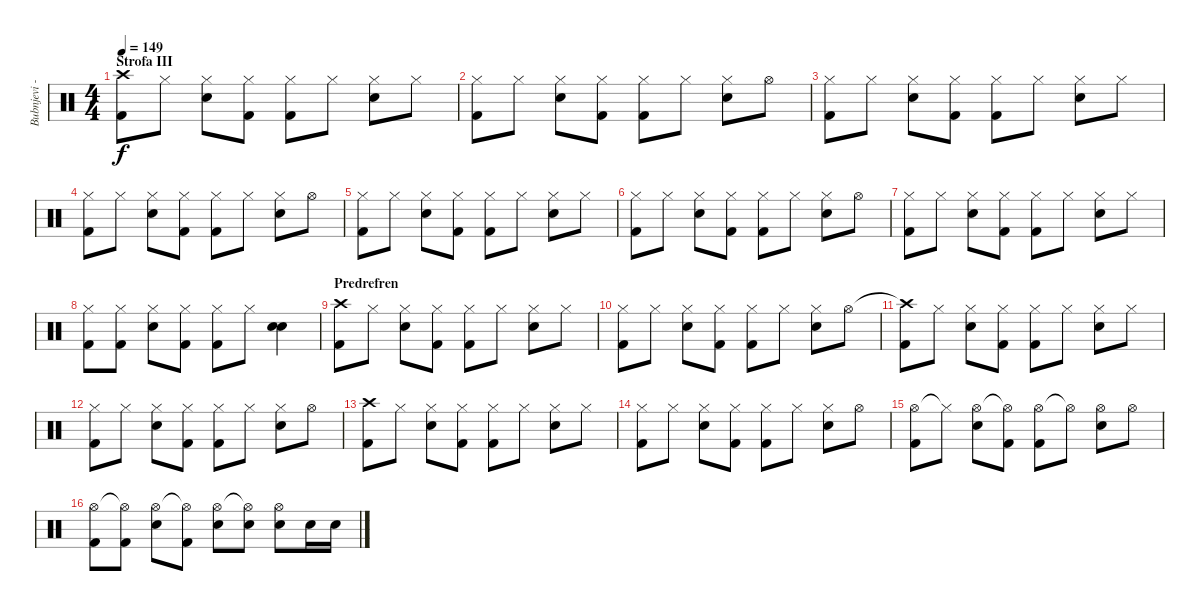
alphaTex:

\track ("Bubnjevi - Vladan Cvetkovic" "Bubnjevi -") {instrument percussion}
\staff {score}
\articulation defaults
\ts (4 4)
\section ("" "Strofa III")
\tempo 149
\clef neutral
\ks c
("Crash high (hit)" "Kick (hit) 2").8{dy f} "Hi-Hat (closed)".8 ("Hi-Hat (closed)" "Electric Snare (hit)").8 ("Hi-Hat (closed)" "Kick (hit) 2").8 ("Hi-Hat (closed)" "Kick (hit) 2").8 "Hi-Hat (closed)".8 ("Hi-Hat (closed)" "Electric Snare (hit)").8 "Hi-Hat (closed)".8 |
("Hi-Hat (closed)" "Kick (hit) 2").8 "Hi-Hat (closed)".8 ("Hi-Hat (closed)" "Electric Snare (hit)").8 ("Hi-Hat (closed)" "Kick (hit) 2").8 ("Hi-Hat (closed)" "Kick (hit) 2").8 "Hi-Hat (closed)".8 ("Hi-Hat (closed)" "Electric Snare (hit)").8 "Hi-Hat (open)".8 |
("Hi-Hat (closed)" "Kick (hit) 2").8 "Hi-Hat (closed)".8 ("Hi-Hat (closed)" "Electric Snare (hit)").8 ("Hi-Hat (closed)" "Kick (hit) 2").8 ("Hi-Hat (closed)" "Kick (hit) 2").8 "Hi-Hat (closed)".8 ("Hi-Hat (closed)" "Electric Snare (hit)").8 "Hi-Hat (closed)".8 |
("Hi-Hat (closed)" "Kick (hit) 2").8 "Hi-Hat (closed)".8 ("Hi-Hat (closed)" "Electric Snare (hit)").8 ("Hi-Hat (closed)" "Kick (hit) 2").8 ("Hi-Hat (closed)" "Kick (hit) 2").8 "Hi-Hat (closed)".8 ("Hi-Hat (closed)" "Electric Snare (hit)").8 "Hi-Hat (open)".8 |
("Hi-Hat (closed)" "Kick (hit) 2").8 "Hi-Hat (closed)".8 ("Hi-Hat (closed)" "Electric Snare (hit)").8 ("Hi-Hat (closed)" "Kick (hit) 2").8 ("Hi-Hat (closed)" "Kick (hit) 2").8 "Hi-Hat (closed)".8 ("Hi-Hat (closed)" "Electric Snare (hit)").8 "Hi-Hat (closed)".8 |
("Hi-Hat (closed)" "Kick (hit) 2").8 "Hi-Hat (closed)".8 ("Hi-Hat (closed)" "Electric Snare (hit)").8 ("Hi-Hat (closed)" "Kick (hit) 2").8 ("Hi-Hat (closed)" "Kick (hit) 2").8 "Hi-Hat (closed)".8 ("Hi-Hat (closed)" "Electric Snare (hit)").8 "Hi-Hat (open)".8 |
("Hi-Hat (closed)" "Kick (hit) 2").8 "Hi-Hat (closed)".8 ("Hi-Hat (closed)" "Electric Snare (hit)").8 ("Hi-Hat (closed)" "Kick (hit) 2").8 ("Hi-Hat (closed)" "Kick (hit) 2").8 "Hi-Hat (closed)".8 ("Hi-Hat (closed)" "Electric Snare (hit)").8 "Hi-Hat (closed)".8 |
("Hi-Hat (closed)" "Kick (hit) 2").8 ("Hi-Hat (closed)" "Kick (hit) 2").8 ("Hi-Hat (closed)" "Electric Snare (hit)").8 ("Hi-Hat (closed)" "Kick (hit) 2").8 ("Hi-Hat (closed)" "Kick (hit) 2").8 "Hi-Hat (closed)".8 ("Electric Snare (hit)" "Electric Snare (hit)").4{bd 240} |
\section ("" "Predrefren")
("Crash high (hit)" "Kick (hit) 2").8 "Hi-Hat (closed)".8 ("Hi-Hat (closed)" "Electric Snare (hit)").8 ("Hi-Hat (closed)" "Kick (hit) 2").8 ("Hi-Hat (closed)" "Kick (hit) 2").8 "Hi-Hat (closed)".8 ("Hi-Hat (closed)" "Electric Snare (hit)").8 "Hi-Hat (closed)".8 |
("Hi-Hat (closed)" "Kick (hit) 2").8 "Hi-Hat (closed)".8 ("Hi-Hat (closed)" "Electric Snare (hit)").8 ("Hi-Hat (closed)" "Kick (hit) 2").8 ("Hi-Hat (closed)" "Kick (hit) 2").8 "Hi-Hat (closed)".8 ("Hi-Hat (closed)" "Electric Snare (hit)").8 "Hi-Hat (open)".8 |
("Crash high (hit)"{t} "Kick (hit) 2").8 "Hi-Hat (closed)".8 ("Hi-Hat (closed)" "Electric Snare (hit)").8 ("Hi-Hat (closed)" "Kick (hit) 2").8 ("Hi-Hat (closed)" "Kick (hit) 2").8 "Hi-Hat (closed)".8 ("Hi-Hat (closed)" "Electric Snare (hit)").8 "Hi-Hat (closed)".8 |
("Hi-Hat (closed)" "Kick (hit) 2").8 "Hi-Hat (closed)".8 ("Hi-Hat (closed)" "Electric Snare (hit)").8 ("Hi-Hat (closed)" "Kick (hit) 2").8 ("Hi-Hat (closed)" "Kick (hit) 2").8 "Hi-Hat (closed)".8 ("Hi-Hat (closed)" "Electric Snare (hit)").8 "Hi-Hat (open)".8 |
("Crash high (hit)" "Kick (hit) 2").8 "Hi-Hat (closed)".8 ("Hi-Hat (closed)" "Electric Snare (hit)").8 ("Hi-Hat (closed)" "Kick (hit) 2").8 ("Hi-Hat (closed)" "Kick (hit) 2").8 "Hi-Hat (closed)".8 ("Hi-Hat (closed)" "Electric Snare (hit)").8 "Hi-Hat (closed)".8 |
("Hi-Hat (closed)" "Kick (hit) 2").8 "Hi-Hat (closed)".8 ("Hi-Hat (closed)" "Electric Snare (hit)").8 ("Hi-Hat (closed)" "Kick (hit) 2").8 ("Hi-Hat (closed)" "Kick (hit) 2").8 "Hi-Hat (closed)".8 ("Hi-Hat (closed)" "Electric Snare (hit)").8 "Hi-Hat (open)".8 |
("Hi-Hat (open)" "Kick (hit) 2").8 "Hi-Hat (closed)"{t}.8 ("Hi-Hat (open)" "Electric Snare (hit)").8 ("Hi-Hat (open)"{t} "Kick (hit) 2").8 ("Hi-Hat (open)" "Kick (hit) 2").8 "Hi-Hat (open)"{t}.8 ("Hi-Hat (open)" "Electric Snare (hit)").8 "Hi-Hat (open)".8 |
("Hi-Hat (open)" "Kick (hit) 2").8 ("Hi-Hat (open)"{t} "Kick (hit) 2").8 ("Hi-Hat (open)" "Electric Snare (hit)").8 ("Hi-Hat (open)"{t} "Kick (hit) 2").8 ("Hi-Hat (open)" "Electric Snare (hit)").8 ("Hi-Hat (open)"{t} "Electric Snare (hit)").8 ("Hi-Hat (open)" "Electric Snare (hit)").8 "Electric Snare (hit)".16 "Electric Snare (hit)".16
